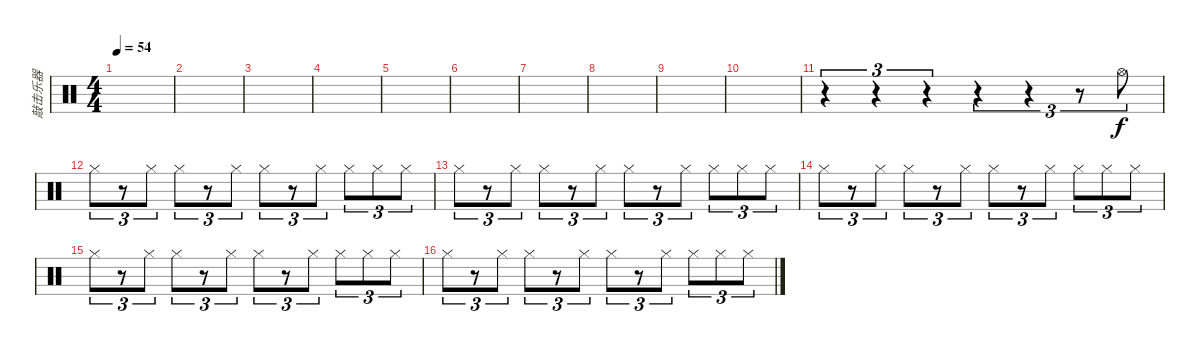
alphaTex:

\track ("敲击乐器" "敲击乐器") {instrument percussion}
\staff {score}
\articulation defaults
\ts (4 4)
\tempo 54
\clef neutral
\ks c
|
|
|
|
|
|
|
|
|
|
r.4{tu (3 2)} r.4{tu (3 2)} r.4{tu (3 2)} r.4{tu (3 2)} r.4{tu (3 2)} r.8{tu (3 2)} "Hi-Hat (open)".8{tu (3 2)} |
"Hi-Hat (closed)".8{tu (3 2)} r.8{tu (3 2)} "Hi-Hat (closed)".8{tu (3 2)} "Hi-Hat (closed)".8{tu (3 2)} r.8{tu (3 2)} "Hi-Hat (closed)".8{tu (3 2)} "Hi-Hat (closed)".8{tu (3 2)} r.8{tu (3 2)} "Hi-Hat (closed)".8{tu (3 2)} "Hi-Hat (closed)".8{tu (3 2)} "Hi-Hat (closed)".8{tu (3 2)} "Hi-Hat (closed)".8{tu (3 2)} |
"Hi-Hat (closed)".8{tu (3 2)} r.8{tu (3 2)} "Hi-Hat (closed)".8{tu (3 2)} "Hi-Hat (closed)".8{tu (3 2)} r.8{tu (3 2)} "Hi-Hat (closed)".8{tu (3 2)} "Hi-Hat (closed)".8{tu (3 2)} r.8{tu (3 2)} "Hi-Hat (closed)".8{tu (3 2)} "Hi-Hat (closed)".8{tu (3 2)} "Hi-Hat (closed)".8{tu (3 2)} "Hi-Hat (closed)".8{tu (3 2)} |
"Hi-Hat (closed)".8{tu (3 2)} r.8{tu (3 2)} "Hi-Hat (closed)".8{tu (3 2)} "Hi-Hat (closed)".8{tu (3 2)} r.8{tu (3 2)} "Hi-Hat (closed)".8{tu (3 2)} "Hi-Hat (closed)".8{tu (3 2)} r.8{tu (3 2)} "Hi-Hat (closed)".8{tu (3 2)} "Hi-Hat (closed)".8{tu (3 2)} "Hi-Hat (closed)".8{tu (3 2)} "Hi-Hat (closed)".8{tu (3 2)} |
"Hi-Hat (closed)".8{tu (3 2)} r.8{tu (3 2)} "Hi-Hat (closed)".8{tu (3 2)} "Hi-Hat (closed)".8{tu (3 2)} r.8{tu (3 2)} "Hi-Hat (closed)".8{tu (3 2)} "Hi-Hat (closed)".8{tu (3 2)} r.8{tu (3 2)} "Hi-Hat (closed)".8{tu (3 2)} "Hi-Hat (closed)".8{tu (3 2)} "Hi-Hat (closed)".8{tu (3 2)} "Hi-Hat (closed)".8{tu (3 2)} |
"Hi-Hat (closed)".8{tu (3 2)} r.8{tu (3 2)} "Hi-Hat (closed)".8{tu (3 2)} "Hi-Hat (closed)".8{tu (3 2)} r.8{tu (3 2)} "Hi-Hat (closed)".8{tu (3 2)} "Hi-Hat (closed)".8{tu (3 2)} r.8{tu (3 2)} "Hi-Hat (closed)".8{tu (3 2)} "Hi-Hat (closed)".8{tu (3 2)} "Hi-Hat (closed)".8{tu (3 2)} "Hi-Hat (closed)".8{tu (3 2)}
